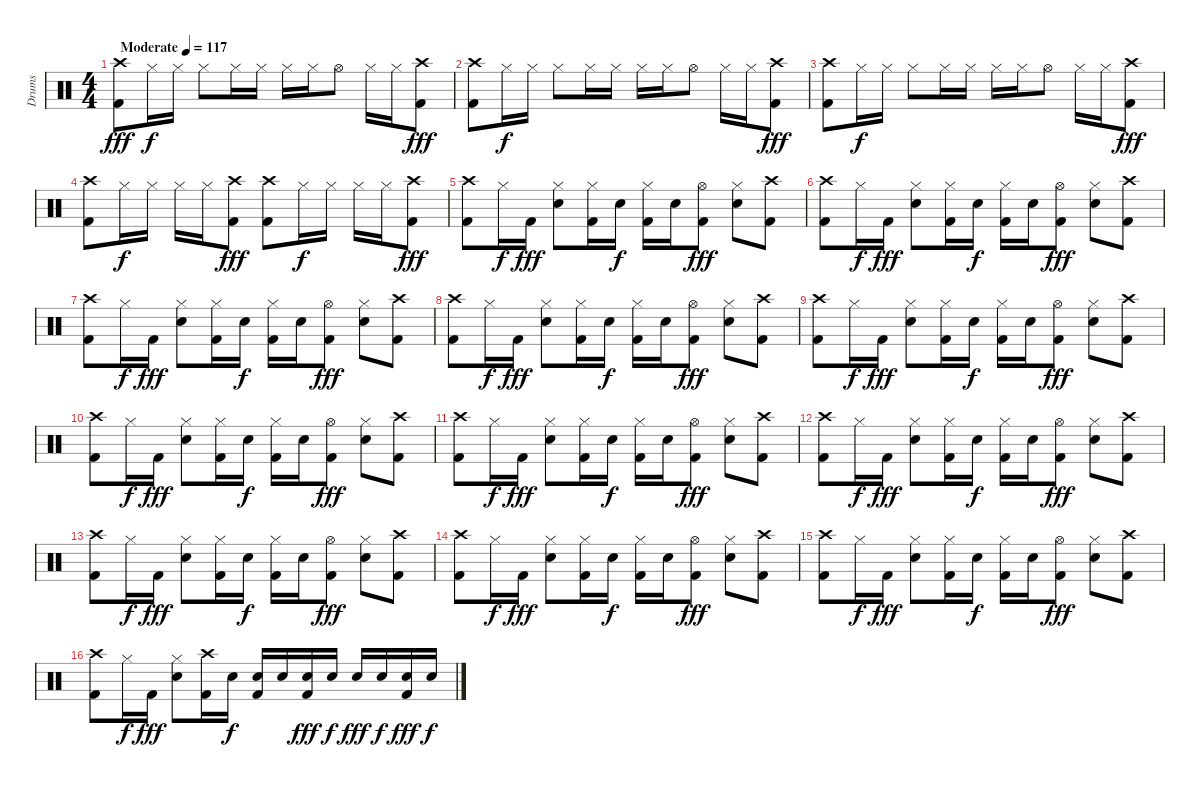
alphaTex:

\track ("Drums" "Drums") {instrument percussion}
\staff {score}
\articulation defaults
\ts (4 4)
\tempo (117 "Moderate")
\clef neutral
\ks c
("Crash high (hit)" "Kick (hit) 2").8{dy fff} "Hi-Hat (closed)".16{dy f} "Hi-Hat (closed)".16 "Hi-Hat (closed)".8 "Hi-Hat (closed)".16 "Hi-Hat (closed)".16 "Hi-Hat (closed)".16 "Hi-Hat (closed)".16 "Hi-Hat (open)".8 "Hi-Hat (closed)".16 "Hi-Hat (closed)".16 ("Crash high (hit)" "Kick (hit) 2").8{dy fff} |
("Crash high (hit)" "Kick (hit) 2").8 "Hi-Hat (closed)".16{dy f} "Hi-Hat (closed)".16 "Hi-Hat (closed)".8 "Hi-Hat (closed)".16 "Hi-Hat (closed)".16 "Hi-Hat (closed)".16 "Hi-Hat (closed)".16 "Hi-Hat (open)".8 "Hi-Hat (closed)".16 "Hi-Hat (closed)".16 ("Crash high (hit)" "Kick (hit) 2").8{dy fff} |
("Crash high (hit)" "Kick (hit) 2").8 "Hi-Hat (closed)".16{dy f} "Hi-Hat (closed)".16 "Hi-Hat (closed)".8 "Hi-Hat (closed)".16 "Hi-Hat (closed)".16 "Hi-Hat (closed)".16 "Hi-Hat (closed)".16 "Hi-Hat (open)".8 "Hi-Hat (closed)".16 "Hi-Hat (closed)".16 ("Crash high (hit)" "Kick (hit) 2").8{dy fff} |
("Crash high (hit)" "Kick (hit) 2").8 "Hi-Hat (closed)".16{dy f} "Hi-Hat (closed)".16 "Hi-Hat (closed)".16 "Hi-Hat (closed)".16 ("Crash high (hit)" "Kick (hit) 2").8{dy fff} ("Crash high (hit)" "Kick (hit) 2").8 "Hi-Hat (closed)".16{dy f} "Hi-Hat (closed)".16 "Hi-Hat (closed)".16 "Hi-Hat (closed)".16 ("Crash high (hit)" "Kick (hit) 2").8{dy fff} |
("Crash high (hit)" "Kick (hit) 2").8 "Hi-Hat (closed)".16{dy f} "Kick (hit) 2".16{dy fff} ("Hi-Hat (closed)" "Snare (hit) 2").8 ("Hi-Hat (closed)" "Kick (hit) 2").16 "Snare (hit) 2".16{dy f} ("Hi-Hat (closed)" "Kick (hit) 2").16 "Snare (hit) 2".16 ("Hi-Hat (open)" "Kick (hit) 2").8{dy fff} ("Hi-Hat (closed)" "Snare (hit) 2").8 ("Crash high (hit)" "Kick (hit) 2").8 |
("Crash high (hit)" "Kick (hit) 2").8 "Hi-Hat (closed)".16{dy f} "Kick (hit) 2".16{dy fff} ("Hi-Hat (closed)" "Snare (hit) 2").8 ("Hi-Hat (closed)" "Kick (hit) 2").16 "Snare (hit) 2".16{dy f} ("Hi-Hat (closed)" "Kick (hit) 2").16 "Snare (hit) 2".16 ("Hi-Hat (open)" "Kick (hit) 2").8{dy fff} ("Hi-Hat (closed)" "Snare (hit) 2").8 ("Crash high (hit)" "Kick (hit) 2").8 |
("Crash high (hit)" "Kick (hit) 2").8 "Hi-Hat (closed)".16{dy f} "Kick (hit) 2".16{dy fff} ("Hi-Hat (closed)" "Snare (hit) 2").8 ("Hi-Hat (closed)" "Kick (hit) 2").16 "Snare (hit) 2".16{dy f} ("Hi-Hat (closed)" "Kick (hit) 2").16 "Snare (hit) 2".16 ("Hi-Hat (open)" "Kick (hit) 2").8{dy fff} ("Hi-Hat (closed)" "Snare (hit) 2").8 ("Crash high (hit)" "Kick (hit) 2").8 |
("Crash high (hit)" "Kick (hit) 2").8 "Hi-Hat (closed)".16{dy f} "Kick (hit) 2".16{dy fff} ("Hi-Hat (closed)" "Snare (hit) 2").8 ("Hi-Hat (closed)" "Kick (hit) 2").16 "Snare (hit) 2".16{dy f} ("Hi-Hat (closed)" "Kick (hit) 2").16 "Snare (hit) 2".16 ("Hi-Hat (open)" "Kick (hit) 2").8{dy fff} ("Hi-Hat (closed)" "Snare (hit) 2").8 ("Crash high (hit)" "Kick (hit) 2").8 |
("Crash high (hit)" "Kick (hit) 2").8 "Hi-Hat (closed)".16{dy f} "Kick (hit) 2".16{dy fff} ("Hi-Hat (closed)" "Snare (hit) 2").8 ("Hi-Hat (closed)" "Kick (hit) 2").16 "Snare (hit) 2".16{dy f} ("Hi-Hat (closed)" "Kick (hit) 2").16 "Snare (hit) 2".16 ("Hi-Hat (open)" "Kick (hit) 2").8{dy fff} ("Hi-Hat (closed)" "Snare (hit) 2").8 ("Crash high (hit)" "Kick (hit) 2").8 |
("Crash high (hit)" "Kick (hit) 2").8 "Hi-Hat (closed)".16{dy f} "Kick (hit) 2".16{dy fff} ("Hi-Hat (closed)" "Snare (hit) 2").8 ("Hi-Hat (closed)" "Kick (hit) 2").16 "Snare (hit) 2".16{dy f} ("Hi-Hat (closed)" "Kick (hit) 2").16 "Snare (hit) 2".16 ("Hi-Hat (open)" "Kick (hit) 2").8{dy fff} ("Hi-Hat (closed)" "Snare (hit) 2").8 ("Crash high (hit)" "Kick (hit) 2").8 |
("Crash high (hit)" "Kick (hit) 2").8 "Hi-Hat (closed)".16{dy f} "Kick (hit) 2".16{dy fff} ("Hi-Hat (closed)" "Snare (hit) 2").8 ("Hi-Hat (closed)" "Kick (hit) 2").16 "Snare (hit) 2".16{dy f} ("Hi-Hat (closed)" "Kick (hit) 2").16 "Snare (hit) 2".16 ("Hi-Hat (open)" "Kick (hit) 2").8{dy fff} ("Hi-Hat (closed)" "Snare (hit) 2").8 ("Crash high (hit)" "Kick (hit) 2").8 |
("Crash high (hit)" "Kick (hit) 2").8 "Hi-Hat (closed)".16{dy f} "Kick (hit) 2".16{dy fff} ("Hi-Hat (closed)" "Snare (hit) 2").8 ("Hi-Hat (closed)" "Kick (hit) 2").16 "Snare (hit) 2".16{dy f} ("Hi-Hat (closed)" "Kick (hit) 2").16 "Snare (hit) 2".16 ("Hi-Hat (open)" "Kick (hit) 2").8{dy fff} ("Hi-Hat (closed)" "Snare (hit) 2").8 ("Crash high (hit)" "Kick (hit) 2").8 |
("Crash high (hit)" "Kick (hit) 2").8 "Hi-Hat (closed)".16{dy f} "Kick (hit) 2".16{dy fff} ("Hi-Hat (closed)" "Snare (hit) 2").8 ("Hi-Hat (closed)" "Kick (hit) 2").16 "Snare (hit) 2".16{dy f} ("Hi-Hat (closed)" "Kick (hit) 2").16 "Snare (hit) 2".16 ("Hi-Hat (open)" "Kick (hit) 2").8{dy fff} ("Hi-Hat (closed)" "Snare (hit) 2").8 ("Crash high (hit)" "Kick (hit) 2").8 |
("Crash high (hit)" "Kick (hit) 2").8 "Hi-Hat (closed)".16{dy f} "Kick (hit) 2".16{dy fff} ("Hi-Hat (closed)" "Snare (hit) 2").8 ("Hi-Hat (closed)" "Kick (hit) 2").16 "Snare (hit) 2".16{dy f} ("Hi-Hat (closed)" "Kick (hit) 2").16 "Snare (hit) 2".16 ("Hi-Hat (open)" "Kick (hit) 2").8{dy fff} ("Hi-Hat (closed)" "Snare (hit) 2").8 ("Crash high (hit)" "Kick (hit) 2").8 |
("Crash high (hit)" "Kick (hit) 2").8 "Hi-Hat (closed)".16{dy f} "Kick (hit) 2".16{dy fff} ("Hi-Hat (closed)" "Snare (hit) 2").8 ("Hi-Hat (closed)" "Kick (hit) 2").16 "Snare (hit) 2".16{dy f} ("Hi-Hat (closed)" "Kick (hit) 2").16 "Snare (hit) 2".16 ("Hi-Hat (open)" "Kick (hit) 2").8{dy fff} ("Hi-Hat (closed)" "Snare (hit) 2").8 ("Crash high (hit)" "Kick (hit) 2").8 |
("Crash high (hit)" "Kick (hit) 2").8 "Hi-Hat (closed)".16{dy f} "Kick (hit) 2".16{dy fff} ("Hi-Hat (closed)" "Snare (hit) 2").8 ("Crash high (hit)" "Kick (hit) 2").16 "Snare (hit) 2".16{dy f} ("Snare (hit) 2" "Kick (hit) 2").16 "Snare (hit) 2".16 ("Snare (hit) 2" "Kick (hit) 2").16{dy fff} "Snare (hit) 2".16{dy f} "Snare (hit) 2".16{dy fff} "Snare (hit) 2".16{dy f} ("Snare (hit) 2" "Kick (hit) 2").16{dy fff} "Snare (hit) 2".16{dy f}
